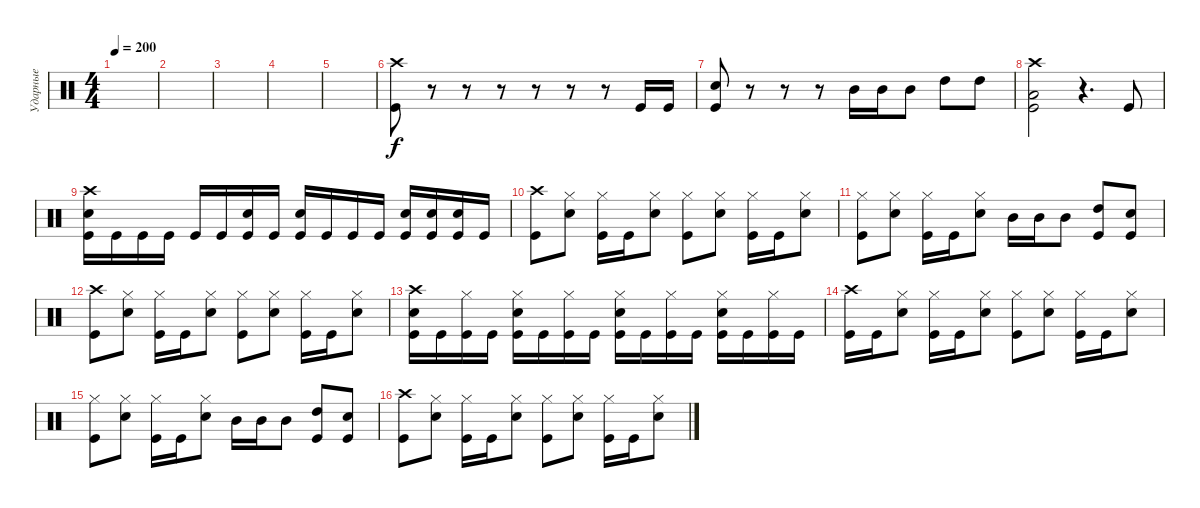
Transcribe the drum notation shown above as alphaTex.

\track ("Ударные" "Ударные") {instrument percussion}
\staff {score}
\articulation defaults
\ts (4 4)
\tempo 200
\clef neutral
\ks c
|
|
|
|
|
("Crash high (hit)" "Kick (hit)").8 r.8 r.8 r.8 r.8 r.8 r.8 "Kick (hit)".16 "Kick (hit)".16 |
("Electric Snare (hit)" "Kick (hit)").8 r.8 r.8 r.8 "Mid Tom (hit)".16 "Mid Tom (hit)".16 "Mid Tom (hit)".8 "High Tom (hit)".8 "High Tom (hit)".8 |
("Crash high (hit)" "Low Tom (hit)" "Kick (hit)").2 r.4{d} "Kick (hit)".8 |
("Crash high (hit)" "Electric Snare (hit)" "Kick (hit)").16 "Kick (hit)".16 "Kick (hit)".16 "Kick (hit)".16 "Kick (hit)".16 "Kick (hit)".16 ("Electric Snare (hit)" "Kick (hit)").16 "Kick (hit)".16 ("Electric Snare (hit)" "Kick (hit)").16 "Kick (hit)".16 "Kick (hit)".16 "Kick (hit)".16 ("Electric Snare (hit)" "Kick (hit)").16 ("Electric Snare (hit)" "Kick (hit)").16 ("Electric Snare (hit)" "Kick (hit)").16 "Kick (hit)".16 |
("Crash high (hit)" "Kick (hit)").8 ("Hi-Hat (closed)" "Electric Snare (hit)").8 ("Hi-Hat (closed)" "Kick (hit)").16 "Kick (hit)".16 ("Hi-Hat (closed)" "Electric Snare (hit)").8 ("Hi-Hat (closed)" "Kick (hit)").8 ("Hi-Hat (closed)" "Electric Snare (hit)").8 ("Hi-Hat (closed)" "Kick (hit)").16 "Kick (hit)".16 ("Hi-Hat (closed)" "Electric Snare (hit)").8 |
("Hi-Hat (closed)" "Kick (hit)").8 ("Hi-Hat (closed)" "Electric Snare (hit)").8 ("Hi-Hat (closed)" "Kick (hit)").16 "Kick (hit)".16 ("Hi-Hat (closed)" "Electric Snare (hit)").8 "Mid Tom (hit)".16 "Mid Tom (hit)".16 "Mid Tom (hit)".8 ("High Tom (hit)" "Kick (hit)").8 ("Electric Snare (hit)" "Kick (hit)").8 |
("Crash high (hit)" "Kick (hit)").8 ("Hi-Hat (closed)" "Electric Snare (hit)").8 ("Hi-Hat (closed)" "Kick (hit)").16 "Kick (hit)".16 ("Hi-Hat (closed)" "Electric Snare (hit)").8 ("Hi-Hat (closed)" "Kick (hit)").8 ("Hi-Hat (closed)" "Electric Snare (hit)").8 ("Hi-Hat (closed)" "Kick (hit)").16 "Kick (hit)".16 ("Hi-Hat (closed)" "Electric Snare (hit)").8 |
("Crash high (hit)" "Electric Snare (hit)" "Kick (hit)").16 "Kick (hit)".16 ("Hi-Hat (closed)" "Kick (hit)").16 "Kick (hit)".16 ("Hi-Hat (closed)" "Electric Snare (hit)" "Kick (hit)").16 "Kick (hit)".16 ("Hi-Hat (closed)" "Kick (hit)").16 "Kick (hit)".16 ("Hi-Hat (closed)" "Electric Snare (hit)" "Kick (hit)").16 "Kick (hit)".16 ("Hi-Hat (closed)" "Kick (hit)").16 "Kick (hit)".16 ("Hi-Hat (closed)" "Electric Snare (hit)" "Kick (hit)").16 "Kick (hit)".16 ("Hi-Hat (closed)" "Kick (hit)").16 "Kick (hit)".16 |
("Crash high (hit)" "Kick (hit)").16 "Kick (hit)".16 ("Hi-Hat (closed)" "Electric Snare (hit)").8 ("Hi-Hat (closed)" "Kick (hit)").16 "Kick (hit)".16 ("Hi-Hat (closed)" "Electric Snare (hit)").8 ("Hi-Hat (closed)" "Kick (hit)").8 ("Hi-Hat (closed)" "Electric Snare (hit)").8 ("Hi-Hat (closed)" "Kick (hit)").16 "Kick (hit)".16 ("Hi-Hat (closed)" "Electric Snare (hit)").8 |
("Hi-Hat (closed)" "Kick (hit)").8 ("Hi-Hat (closed)" "Electric Snare (hit)").8 ("Hi-Hat (closed)" "Kick (hit)").16 "Kick (hit)".16 ("Hi-Hat (closed)" "Electric Snare (hit)").8 "Mid Tom (hit)".16 "Mid Tom (hit)".16 "Mid Tom (hit)".8 ("High Tom (hit)" "Kick (hit)").8 ("Electric Snare (hit)" "Kick (hit)").8 |
("Crash high (hit)" "Kick (hit)").8 ("Hi-Hat (closed)" "Electric Snare (hit)").8 ("Hi-Hat (closed)" "Kick (hit)").16 "Kick (hit)".16 ("Hi-Hat (closed)" "Electric Snare (hit)").8 ("Hi-Hat (closed)" "Kick (hit)").8 ("Hi-Hat (closed)" "Electric Snare (hit)").8 ("Hi-Hat (closed)" "Kick (hit)").16 "Kick (hit)".16 ("Hi-Hat (closed)" "Electric Snare (hit)").8
